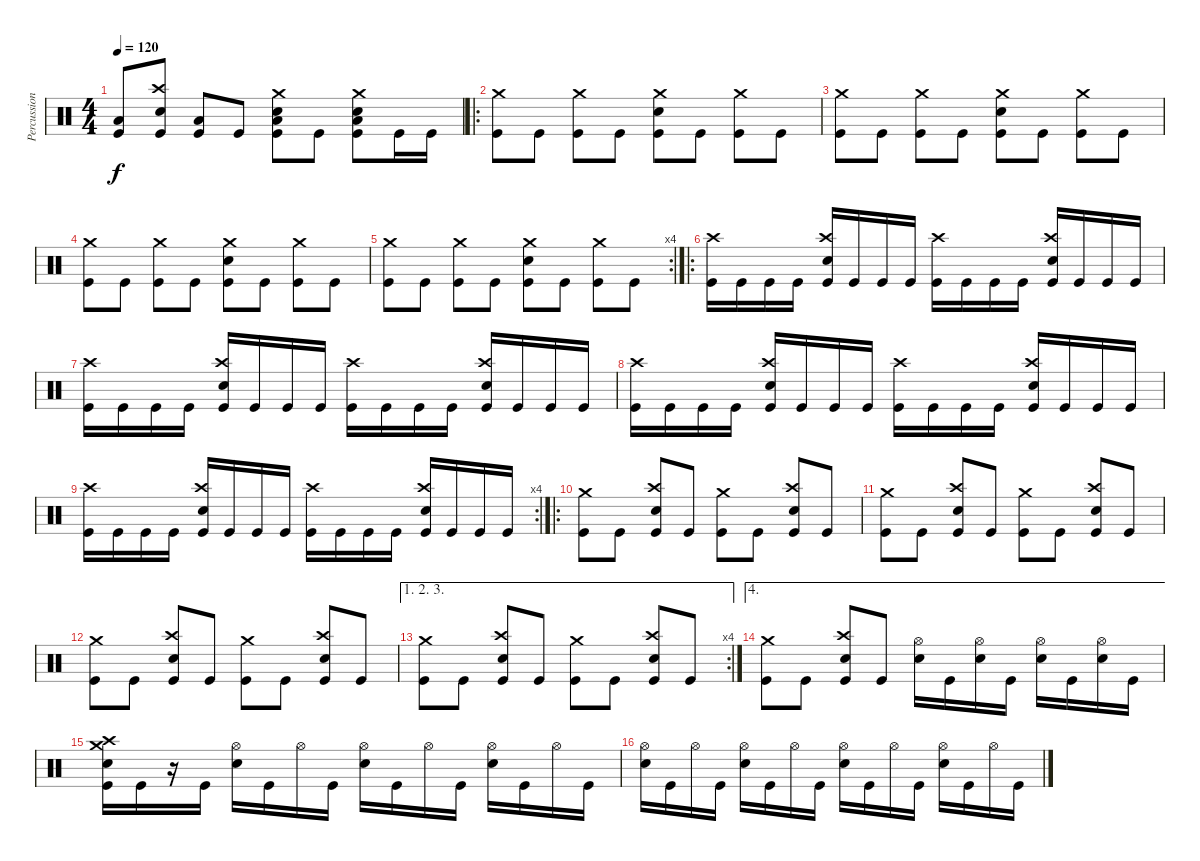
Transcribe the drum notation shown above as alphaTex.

\track ("Percussion" "Percussion") {instrument percussion}
\staff {score}
\articulation defaults
\ts (4 4)
\tempo 120
\clef neutral
\ks c
("Low Floor Tom (hit)" "Kick (hit)").8{dy f} ("Crash high (hit)" "Snare (hit) 2" "Kick (hit)").8 ("Low Floor Tom (hit)" "Kick (hit)").8 "Kick (hit)".8 ("Crash medium (hit)" "Snare (hit) 2" "Low Floor Tom (hit)" "Kick (hit)").8 "Kick (hit)".8 ("Crash medium (hit)" "Snare (hit) 2" "Low Floor Tom (hit)" "Kick (hit)").8 "Kick (hit)".16 "Kick (hit)".16 |
\ro
("Crash medium (hit)" "Kick (hit)").8 "Kick (hit)".8 ("Crash medium (hit)" "Kick (hit)").8 "Kick (hit)".8 ("Crash medium (hit)" "Snare (hit) 2" "Kick (hit)").8 "Kick (hit)".8 ("Crash medium (hit)" "Kick (hit)").8 "Kick (hit)".8 |
("Crash medium (hit)" "Kick (hit)").8 "Kick (hit)".8 ("Crash medium (hit)" "Kick (hit)").8 "Kick (hit)".8 ("Crash medium (hit)" "Snare (hit) 2" "Kick (hit)").8 "Kick (hit)".8 ("Crash medium (hit)" "Kick (hit)").8 "Kick (hit)".8 |
("Crash medium (hit)" "Kick (hit)").8 "Kick (hit)".8 ("Crash medium (hit)" "Kick (hit)").8 "Kick (hit)".8 ("Crash medium (hit)" "Snare (hit) 2" "Kick (hit)").8 "Kick (hit)".8 ("Crash medium (hit)" "Kick (hit)").8 "Kick (hit)".8 |
\rc 4
("Crash medium (hit)" "Kick (hit)").8 "Kick (hit)".8 ("Crash medium (hit)" "Kick (hit)").8 "Kick (hit)".8 ("Crash medium (hit)" "Snare (hit) 2" "Kick (hit)").8 "Kick (hit)".8 ("Crash medium (hit)" "Kick (hit)").8 "Kick (hit)".8 |
\ro
("Crash high (hit)" "Kick (hit)").16 "Kick (hit)".16 "Kick (hit)".16 "Kick (hit)".16 ("Crash high (hit)" "Snare (hit) 2" "Kick (hit)").16 "Kick (hit)".16 "Kick (hit)".16 "Kick (hit)".16 ("Crash high (hit)" "Kick (hit)").16 "Kick (hit)".16 "Kick (hit)".16 "Kick (hit)".16 ("Crash high (hit)" "Snare (hit) 2" "Kick (hit)").16 "Kick (hit)".16 "Kick (hit)".16 "Kick (hit)".16 |
("Crash high (hit)" "Kick (hit)").16 "Kick (hit)".16 "Kick (hit)".16 "Kick (hit)".16 ("Crash high (hit)" "Snare (hit) 2" "Kick (hit)").16 "Kick (hit)".16 "Kick (hit)".16 "Kick (hit)".16 ("Crash high (hit)" "Kick (hit)").16 "Kick (hit)".16 "Kick (hit)".16 "Kick (hit)".16 ("Crash high (hit)" "Snare (hit) 2" "Kick (hit)").16 "Kick (hit)".16 "Kick (hit)".16 "Kick (hit)".16 |
("Crash high (hit)" "Kick (hit)").16 "Kick (hit)".16 "Kick (hit)".16 "Kick (hit)".16 ("Crash high (hit)" "Snare (hit) 2" "Kick (hit)").16 "Kick (hit)".16 "Kick (hit)".16 "Kick (hit)".16 ("Crash high (hit)" "Kick (hit)").16 "Kick (hit)".16 "Kick (hit)".16 "Kick (hit)".16 ("Crash high (hit)" "Snare (hit) 2" "Kick (hit)").16 "Kick (hit)".16 "Kick (hit)".16 "Kick (hit)".16 |
\rc 4
("Crash high (hit)" "Kick (hit)").16 "Kick (hit)".16 "Kick (hit)".16 "Kick (hit)".16 ("Crash high (hit)" "Snare (hit) 2" "Kick (hit)").16 "Kick (hit)".16 "Kick (hit)".16 "Kick (hit)".16 ("Crash high (hit)" "Kick (hit)").16 "Kick (hit)".16 "Kick (hit)".16 "Kick (hit)".16 ("Crash high (hit)" "Snare (hit) 2" "Kick (hit)").16 "Kick (hit)".16 "Kick (hit)".16 "Kick (hit)".16 |
\ro
("Crash medium (hit)" "Kick (hit)").8 "Kick (hit)".8 ("Crash high (hit)" "Snare (hit) 2" "Kick (hit)").8 "Kick (hit)".8 ("Crash medium (hit)" "Kick (hit)").8 "Kick (hit)".8 ("Crash high (hit)" "Snare (hit) 2" "Kick (hit)").8 "Kick (hit)".8 |
("Crash medium (hit)" "Kick (hit)").8 "Kick (hit)".8 ("Crash high (hit)" "Snare (hit) 2" "Kick (hit)").8 "Kick (hit)".8 ("Crash medium (hit)" "Kick (hit)").8 "Kick (hit)".8 ("Crash high (hit)" "Snare (hit) 2" "Kick (hit)").8 "Kick (hit)".8 |
("Crash medium (hit)" "Kick (hit)").8 "Kick (hit)".8 ("Crash high (hit)" "Snare (hit) 2" "Kick (hit)").8 "Kick (hit)".8 ("Crash medium (hit)" "Kick (hit)").8 "Kick (hit)".8 ("Crash high (hit)" "Snare (hit) 2" "Kick (hit)").8 "Kick (hit)".8 |
\ae (1 2 3)
\rc 4
("Crash medium (hit)" "Kick (hit)").8 "Kick (hit)".8 ("Crash high (hit)" "Snare (hit) 2" "Kick (hit)").8 "Kick (hit)".8 ("Crash medium (hit)" "Kick (hit)").8 "Kick (hit)".8 ("Crash high (hit)" "Snare (hit) 2" "Kick (hit)").8 "Kick (hit)".8 |
\ae 4
("Crash medium (hit)" "Kick (hit)").8 "Kick (hit)".8 ("Crash high (hit)" "Snare (hit) 2" "Kick (hit)").8 "Kick (hit)".8 ("Hi-Hat (open)" "Snare (hit) 2").16 "Kick (hit)".16 ("Hi-Hat (open)" "Snare (hit) 2").16 "Kick (hit)".16 ("Hi-Hat (open)" "Snare (hit) 2").16 "Kick (hit)".16 ("Hi-Hat (open)" "Snare (hit) 2").16 "Kick (hit)".16 |
("Crash high (hit)" "Crash medium (hit)" "Snare (hit) 2" "Kick (hit)").16 "Kick (hit)".16 r.16 "Kick (hit)".16 ("Hi-Hat (open)" "Snare (hit) 2").16 "Kick (hit)".16 "Hi-Hat (open)".16 "Kick (hit)".16 ("Hi-Hat (open)" "Snare (hit) 2").16 "Kick (hit)".16 "Hi-Hat (open)".16 "Kick (hit)".16 ("Hi-Hat (open)" "Snare (hit) 2").16 "Kick (hit)".16 "Hi-Hat (open)".16 "Kick (hit)".16 |
("Hi-Hat (open)" "Snare (hit) 2").16 "Kick (hit)".16 "Hi-Hat (open)".16 "Kick (hit)".16 ("Hi-Hat (open)" "Snare (hit) 2").16 "Kick (hit)".16 "Hi-Hat (open)".16 "Kick (hit)".16 ("Hi-Hat (open)" "Snare (hit) 2").16 "Kick (hit)".16 "Hi-Hat (open)".16 "Kick (hit)".16 ("Hi-Hat (open)" "Snare (hit) 2").16 "Kick (hit)".16 "Hi-Hat (open)".16 "Kick (hit)".16
